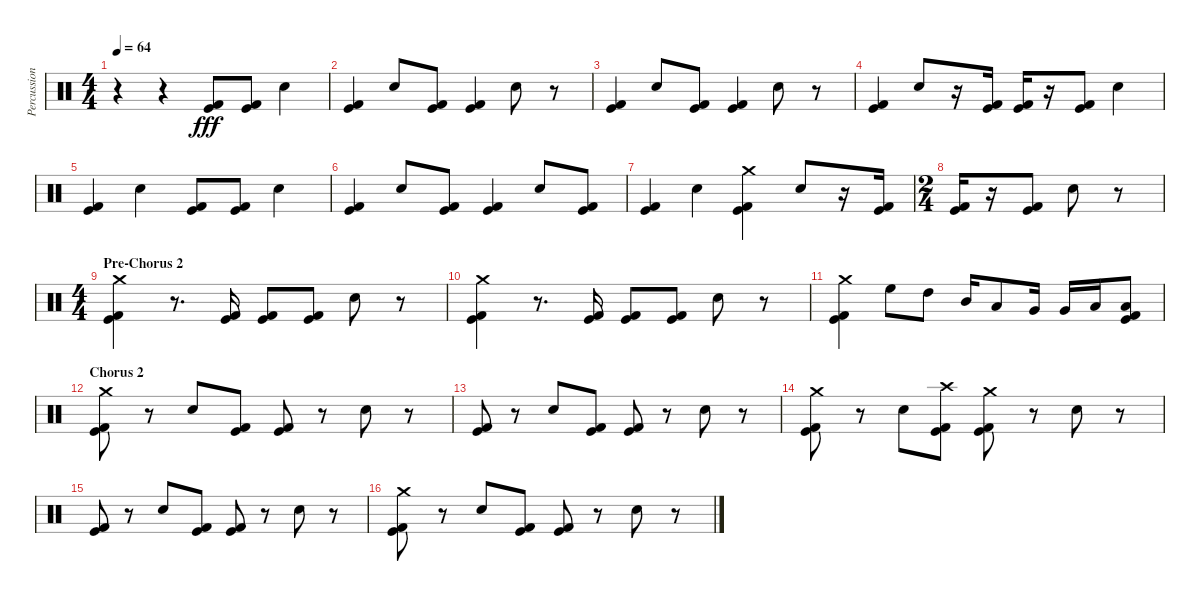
\track ("Percussion" "Percussion") {instrument percussion}
\staff {score}
\articulation defaults
\ts (4 4)
\tempo 64
\clef neutral
\ks c
r.4{dy fff} r.4 ("Kick (hit) 2" "Kick (hit)").8 ("Kick (hit) 2" "Kick (hit)").8 "Snare (hit) 2".4 |
("Kick (hit) 2" "Kick (hit)").4 "Snare (hit) 2".8 ("Kick (hit) 2" "Kick (hit)").8 ("Kick (hit) 2" "Kick (hit)").4 "Snare (hit) 2".8 r.8 |
("Kick (hit) 2" "Kick (hit)").4 "Snare (hit) 2".8 ("Kick (hit) 2" "Kick (hit)").8 ("Kick (hit) 2" "Kick (hit)").4 "Snare (hit) 2".8 r.8 |
("Kick (hit) 2" "Kick (hit)").4 "Snare (hit) 2".8 r.16 ("Kick (hit) 2" "Kick (hit)").16 ("Kick (hit) 2" "Kick (hit)").16 r.16 ("Kick (hit) 2" "Kick (hit)").8 "Snare (hit) 2".4 |
("Kick (hit) 2" "Kick (hit)").4 "Snare (hit) 2".4 ("Kick (hit) 2" "Kick (hit)").8 ("Kick (hit) 2" "Kick (hit)").8 "Snare (hit) 2".4 |
("Kick (hit) 2" "Kick (hit)").4 "Snare (hit) 2".8 ("Kick (hit) 2" "Kick (hit)").8 ("Kick (hit) 2" "Kick (hit)").4 "Snare (hit) 2".8 ("Kick (hit) 2" "Kick (hit)").8 |
("Kick (hit) 2" "Kick (hit)").4 "Snare (hit) 2".4 ("Crash medium (hit)" "Kick (hit) 2" "Kick (hit)").4 "Snare (hit) 2".8 r.16 ("Kick (hit) 2" "Kick (hit)").16 |
\ts (2 4)
("Kick (hit) 2" "Kick (hit)").16 r.16 ("Kick (hit) 2" "Kick (hit)").8 "Snare (hit) 2".8 r.8 |
\ts (4 4)
\section ("" "Pre-Chorus 2")
("Crash medium (hit)" "Kick (hit) 2" "Kick (hit)").4 r.8{d} ("Kick (hit) 2" "Kick (hit)").16 ("Kick (hit) 2" "Kick (hit)").8 ("Kick (hit) 2" "Kick (hit)").8 "Snare (hit) 2".8 r.8 |
("Crash medium (hit)" "Kick (hit) 2" "Kick (hit)").4 r.8{d} ("Kick (hit) 2" "Kick (hit)").16 ("Kick (hit) 2" "Kick (hit)").8 ("Kick (hit) 2" "Kick (hit)").8 "Snare (hit) 2".8 r.8 |
("Crash medium (hit)" "Kick (hit) 2" "Kick (hit)").4 "High Floor Tom (hit)".8 "High Tom (hit)".8 "Mid Tom (hit)".16 "Low Tom (hit)".8 "Very Low Tom (hit)".16 "Very Low Tom (hit)".16 "Low Floor Tom (hit)".16 ("Low Floor Tom (hit)" "Kick (hit) 2" "Kick (hit)").8 |
\section ("" "Chorus 2")
("Crash medium (hit)" "Kick (hit) 2" "Kick (hit)").8 r.8 "Snare (hit) 2".8 ("Kick (hit) 2" "Kick (hit)").8 ("Kick (hit) 2" "Kick (hit)").8 r.8 "Snare (hit) 2".8 r.8 |
("Kick (hit) 2" "Kick (hit)").8 r.8 "Snare (hit) 2".8 ("Kick (hit) 2" "Kick (hit)").8 ("Kick (hit) 2" "Kick (hit)").8 r.8 "Snare (hit) 2".8 r.8 |
("Crash medium (hit)" "Kick (hit) 2" "Kick (hit)").8 r.8 "Snare (hit) 2".8 ("Crash high (hit)" "Kick (hit) 2" "Kick (hit)").8 ("Crash medium (hit)" "Kick (hit) 2" "Kick (hit)").8 r.8 "Snare (hit) 2".8 r.8 |
("Kick (hit) 2" "Kick (hit)").8 r.8 "Snare (hit) 2".8 ("Kick (hit) 2" "Kick (hit)").8 ("Kick (hit) 2" "Kick (hit)").8 r.8 "Snare (hit) 2".8 r.8 |
("Crash medium (hit)" "Kick (hit) 2" "Kick (hit)").8 r.8 "Snare (hit) 2".8 ("Kick (hit) 2" "Kick (hit)").8 ("Kick (hit) 2" "Kick (hit)").8 r.8 "Snare (hit) 2".8 r.8
